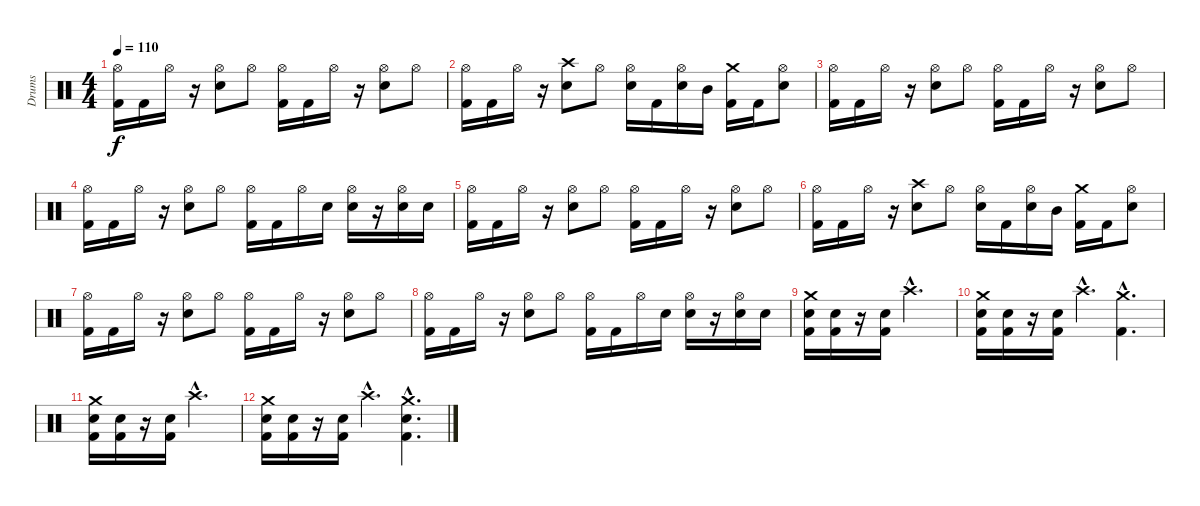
\track ("Drums" "Drums") {instrument percussion}
\staff {score}
\articulation defaults
\ts (4 4)
\tempo 110
\clef neutral
\ks c
("Hi-Hat (open)" "Kick (hit) 2").16{dy f} "Kick (hit) 2".16 "Hi-Hat (open)".16 r.16 ("Hi-Hat (open)" "Electric Snare (hit)").8 "Hi-Hat (open)".8 ("Hi-Hat (open)" "Kick (hit) 2").16 "Kick (hit) 2".16 "Hi-Hat (open)".16 r.16 ("Hi-Hat (open)" "Electric Snare (hit)").8 "Hi-Hat (open)".8 |
("Hi-Hat (open)" "Kick (hit) 2").16 "Kick (hit) 2".16 "Hi-Hat (open)".16 r.16 ("Crash high (hit)" "Electric Snare (hit)").8 "Hi-Hat (open)".8 ("Hi-Hat (open)" "Electric Snare (hit)").16 "Kick (hit) 2".16 ("Hi-Hat (open)" "Electric Snare (hit)").16 "Mid Tom (hit)".16 ("Crash medium (hit)" "Kick (hit) 2").16 "Kick (hit) 2".16 ("Hi-Hat (open)" "Electric Snare (hit)").8 |
("Hi-Hat (open)" "Kick (hit) 2").16 "Kick (hit) 2".16 "Hi-Hat (open)".16 r.16 ("Hi-Hat (open)" "Electric Snare (hit)").8 "Hi-Hat (open)".8 ("Hi-Hat (open)" "Kick (hit) 2").16 "Kick (hit) 2".16 "Hi-Hat (open)".16 r.16 ("Hi-Hat (open)" "Electric Snare (hit)").8 "Hi-Hat (open)".8 |
("Hi-Hat (open)" "Kick (hit) 2").16 "Kick (hit) 2".16 "Hi-Hat (open)".16 r.16 ("Hi-Hat (open)" "Electric Snare (hit)").8 "Hi-Hat (open)".8 ("Hi-Hat (open)" "Kick (hit) 2").16 "Kick (hit) 2".16 "Hi-Hat (open)".16 "Electric Snare (hit)".16 ("Hi-Hat (open)" "Electric Snare (hit)").16 r.16 ("Hi-Hat (open)" "Electric Snare (hit)").16 "Electric Snare (hit)".16 |
("Hi-Hat (open)" "Kick (hit) 2").16 "Kick (hit) 2".16 "Hi-Hat (open)".16 r.16 ("Hi-Hat (open)" "Electric Snare (hit)").8 "Hi-Hat (open)".8 ("Hi-Hat (open)" "Kick (hit) 2").16 "Kick (hit) 2".16 "Hi-Hat (open)".16 r.16 ("Hi-Hat (open)" "Electric Snare (hit)").8 "Hi-Hat (open)".8 |
("Hi-Hat (open)" "Kick (hit) 2").16 "Kick (hit) 2".16 "Hi-Hat (open)".16 r.16 ("Crash high (hit)" "Electric Snare (hit)").8 "Hi-Hat (open)".8 ("Hi-Hat (open)" "Electric Snare (hit)").16 "Kick (hit) 2".16 ("Hi-Hat (open)" "Electric Snare (hit)").16 "Mid Tom (hit)".16 ("Crash medium (hit)" "Kick (hit) 2").16 "Kick (hit) 2".16 ("Hi-Hat (open)" "Electric Snare (hit)").8 |
("Hi-Hat (open)" "Kick (hit) 2").16 "Kick (hit) 2".16 "Hi-Hat (open)".16 r.16 ("Hi-Hat (open)" "Electric Snare (hit)").8 "Hi-Hat (open)".8 ("Hi-Hat (open)" "Kick (hit) 2").16 "Kick (hit) 2".16 "Hi-Hat (open)".16 r.16 ("Hi-Hat (open)" "Electric Snare (hit)").8 "Hi-Hat (open)".8 |
("Hi-Hat (open)" "Kick (hit) 2").16 "Kick (hit) 2".16 "Hi-Hat (open)".16 r.16 ("Hi-Hat (open)" "Electric Snare (hit)").8 "Hi-Hat (open)".8 ("Hi-Hat (open)" "Kick (hit) 2").16 "Kick (hit) 2".16 "Hi-Hat (open)".16 "Electric Snare (hit)".16 ("Hi-Hat (open)" "Electric Snare (hit)").16 r.16 ("Hi-Hat (open)" "Electric Snare (hit)").16 "Electric Snare (hit)".16 |
("Crash medium (hit)" "Electric Snare (hit)" "Kick (hit) 2").16 ("Electric Snare (hit)" "Kick (hit) 2").16 r.16 ("Electric Snare (hit)" "Kick (hit) 2").16 "Crash high (hit)"{hac}.2{d} |
("Crash medium (hit)" "Electric Snare (hit)" "Kick (hit) 2").16 ("Electric Snare (hit)" "Kick (hit) 2").16 r.16 ("Electric Snare (hit)" "Kick (hit) 2").16 "Crash high (hit)"{hac}.4{d} ("Crash medium (hit)"{hac} "Kick (hit) 2"{hac}).4{d} |
("Crash medium (hit)" "Electric Snare (hit)" "Kick (hit) 2").16 ("Electric Snare (hit)" "Kick (hit) 2").16 r.16 ("Electric Snare (hit)" "Kick (hit) 2").16 "Crash high (hit)"{hac}.2{d} |
("Crash medium (hit)" "Electric Snare (hit)" "Kick (hit) 2").16 ("Electric Snare (hit)" "Kick (hit) 2").16 r.16 ("Electric Snare (hit)" "Kick (hit) 2").16 "Crash high (hit)"{hac}.4{d} ("Crash medium (hit)"{hac} "Electric Snare (hit)"{hac} "Kick (hit) 2"{hac}).4{d}
